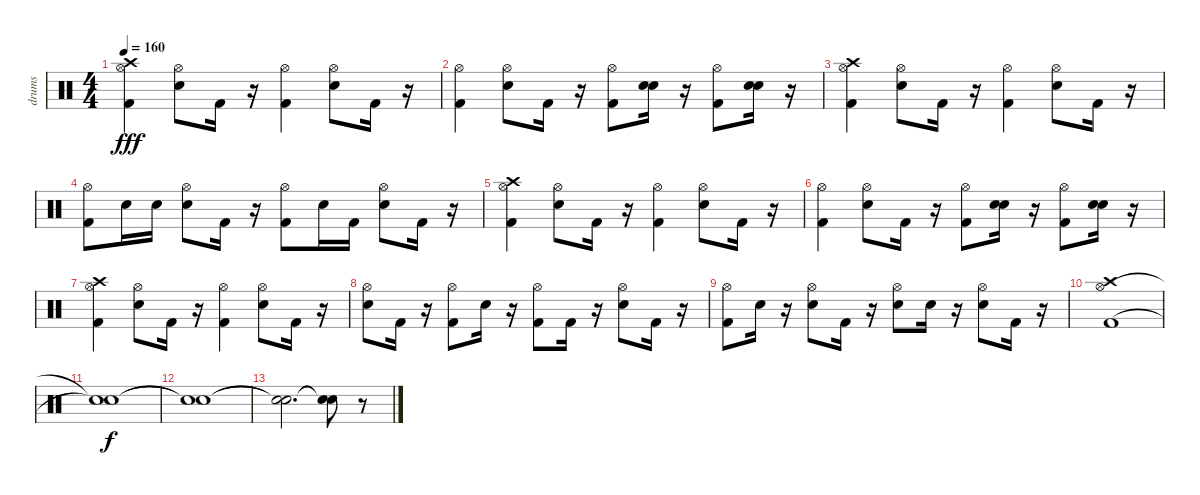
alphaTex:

\track ("drums" "drums") {instrument percussion}
\staff {score}
\articulation defaults
\ts (4 4)
\tempo 160
\clef neutral
\ks c
("Kick (hit) 2" "Crash high (hit)" "Hi-Hat (open)").4{dy fff} ("Electric Snare (hit)" "Hi-Hat (open)").8 "Kick (hit) 2".16 r.16 ("Kick (hit) 2" "Hi-Hat (open)").4 ("Electric Snare (hit)" "Hi-Hat (open)").8 "Kick (hit) 2".16 r.16 |
("Kick (hit) 2" "Hi-Hat (open)").4 ("Electric Snare (hit)" "Hi-Hat (open)").8 "Kick (hit) 2".16 r.16 ("Kick (hit) 2" "Hi-Hat (open)").8 ("Electric Snare (hit)" "Snare (hit) 2").16 r.16 ("Kick (hit) 2" "Hi-Hat (open)").8 ("Electric Snare (hit)" "Snare (hit) 2").16 r.16 |
("Hi-Hat (open)" "Crash high (hit)" "Kick (hit) 2").4 ("Electric Snare (hit)" "Hi-Hat (open)").8 "Kick (hit) 2".16 r.16 ("Kick (hit) 2" "Hi-Hat (open)").4 ("Electric Snare (hit)" "Hi-Hat (open)").8 "Kick (hit) 2".16 r.16 |
("Hi-Hat (open)" "Kick (hit) 2").8 "Electric Snare (hit)".16 "Electric Snare (hit)".16 ("Hi-Hat (open)" "Electric Snare (hit)").8 "Kick (hit) 2".16 r.16 ("Hi-Hat (open)" "Kick (hit) 2").8 "Electric Snare (hit)".16 "Kick (hit) 2".16 ("Hi-Hat (open)" "Snare (hit) 2").8 "Kick (hit) 2".16 r.16 |
("Hi-Hat (open)" "Crash high (hit)" "Kick (hit) 2").4 ("Electric Snare (hit)" "Hi-Hat (open)").8 "Kick (hit) 2".16 r.16 ("Kick (hit) 2" "Hi-Hat (open)").4 ("Electric Snare (hit)" "Hi-Hat (open)").8 "Kick (hit) 2".16 r.16 |
("Kick (hit) 2" "Hi-Hat (open)").4 ("Electric Snare (hit)" "Hi-Hat (open)").8 "Kick (hit) 2".16 r.16 ("Kick (hit) 2" "Hi-Hat (open)").8 ("Electric Snare (hit)" "Snare (hit) 2").16 r.16 ("Kick (hit) 2" "Hi-Hat (open)").8 ("Electric Snare (hit)" "Snare (hit) 2").16 r.16 |
("Hi-Hat (open)" "Crash high (hit)" "Kick (hit) 2").4 ("Electric Snare (hit)" "Hi-Hat (open)").8 "Kick (hit) 2".16 r.16 ("Kick (hit) 2" "Hi-Hat (open)").4 ("Electric Snare (hit)" "Hi-Hat (open)").8 "Kick (hit) 2".16 r.16 |
("Hi-Hat (open)" "Electric Snare (hit)").8 "Kick (hit) 2".16 r.16 ("Hi-Hat (open)" "Kick (hit) 2").8 "Electric Snare (hit)".16 r.16 ("Hi-Hat (open)" "Kick (hit) 2").8 "Kick (hit) 2".16 r.16 ("Hi-Hat (open)" "Electric Snare (hit)").8 "Kick (hit) 2".16 r.16 |
("Hi-Hat (open)" "Kick (hit) 2").8 "Electric Snare (hit)".16 r.16 ("Hi-Hat (open)" "Electric Snare (hit)").8 "Kick (hit) 2".16 r.16 ("Hi-Hat (open)" "Electric Snare (hit)").8 "Electric Snare (hit)".16 r.16 ("Hi-Hat (open)" "Electric Snare (hit)").8 "Kick (hit) 2".16 r.16 |
("Kick (hit) 2" "Hi-Hat (open)" "Crash high (hit)").1 |
("Snare (hit)"{t} "Snare (hit)"{t}).1{dy f} |
("Snare (hit)"{t} "Snare (hit)"{t}).1 |
("Snare (hit)"{t} "Snare (hit)"{t}).2{d} ("Snare (hit)"{t} "Snare (hit)"{t}).8 r.8
